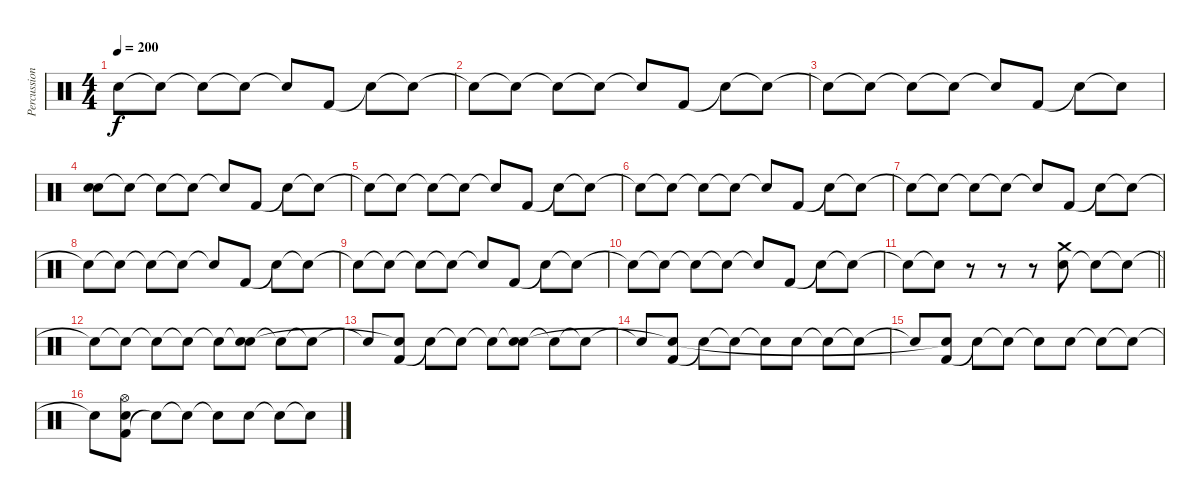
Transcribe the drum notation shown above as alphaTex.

\track ("Percussion" "Percussion") {instrument percussion}
\staff {score}
\articulation defaults
\ts (4 4)
\tempo 200
\clef neutral
\ks c "Snare (hit)"{t}.8{dy f} "Snare (hit)"{t}.8 "Snare (hit)"{t}.8 "Snare (hit)"{t}.8 "Snare (hit)"{t}.8 "Kick (hit) 2".8 "Hand Clap (hit)"{t}.8 "Snare (hit)"{t}.8
|
"Snare (hit)"{t}.8 "Snare (hit)"{t}.8 "Snare (hit)"{t}.8 "Snare (hit)"{t}.8 "Snare (hit)"{t}.8 "Kick (hit) 2".8 "Snare (hit)"{t}.8 "Snare (hit)"{t}.8 |
"Snare (hit)"{t}.8 "Snare (hit)"{t}.8 "Snare (hit)"{t}.8 "Snare (hit)"{t}.8 "Snare (hit)"{t}.8 "Kick (hit) 2".8 "Snare (hit)"{t}.8 "Snare (hit)"{t}.8 |
("Electric Snare (hit)" "Snare (hit)").8 "Snare (hit)"{t}.8 "Snare (hit)"{t}.8 "Snare (hit)"{t}.8 "Snare (hit)"{t}.8 "Kick (hit) 2".8 "Snare (hit)"{t}.8 "Snare (hit)"{t}.8 |
"Snare (hit)"{t}.8 "Snare (hit)"{t}.8 "Snare (hit)"{t}.8 "Snare (hit)"{t}.8 "Snare (hit)"{t}.8 "Kick (hit) 2".8 "Snare (hit)"{t}.8 "Snare (hit)"{t}.8 |
"Snare (hit)"{t}.8 "Snare (hit)"{t}.8 "Snare (hit)"{t}.8 "Snare (hit)"{t}.8 "Snare (hit)"{t}.8 "Kick (hit) 2".8 "Snare (hit)"{t}.8 "Snare (hit)"{t}.8 |
"Snare (hit)"{t}.8 "Snare (hit)"{t}.8 "Snare (hit)"{t}.8 "Snare (hit)"{t}.8 "Snare (hit)"{t}.8 "Kick (hit) 2".8 "Snare (hit)"{t}.8 "Snare (hit)"{t}.8 |
"Snare (hit)"{t}.8 "Snare (hit)"{t}.8 "Snare (hit)"{t}.8 "Snare (hit)"{t}.8 "Snare (hit)"{t}.8 "Kick (hit) 2".8 "Snare (hit)"{t}.8 "Snare (hit)"{t}.8 |
"Snare (hit)"{t}.8 "Snare (hit)"{t}.8 "Snare (hit)"{t}.8 "Snare (hit)"{t}.8 "Snare (hit)"{t}.8 "Kick (hit) 2".8 "Snare (hit)"{t}.8 "Snare (hit)"{t}.8 |
"Snare (hit)"{t}.8 "Snare (hit)"{t}.8 "Snare (hit)"{t}.8 "Snare (hit)"{t}.8 "Snare (hit)"{t}.8 "Kick (hit) 2".8 "Snare (hit)"{t}.8 "Snare (hit)"{t}.8 |
\barLineRight lightlight "Snare (hit)"{t}.8 "Snare (hit)"{t}.8
r.8 r.8 r.8 ("Snare (hit) 2" "Crash medium (hit)").8 "Snare (hit)"{t}.8 "Snare (hit)"{t}.8 |
"Snare (hit)"{t}.8 "Snare (hit)"{t}.8 "Snare (hit)"{t}.8 "Snare (hit)"{t}.8 "Snare (hit)"{t}.8 ("Snare (hit)"{t} "Hand Clap (hit)").8 "Snare (hit)"{t}.8 "Snare (hit)"{t}.8 |
"Snare (hit)"{t}.8 ("Kick (hit) 2" "Snare (hit)"{t}).8 "Snare (hit)"{t}.8 "Snare (hit)"{t}.8 "Snare (hit)"{t}.8 ("Snare (hit)"{t} "Hand Clap (hit)").8 "Snare (hit)"{t}.8 "Snare (hit)"{t}.8 |
"Snare (hit)"{t}.8 ("Kick (hit) 2" "Snare (hit)"{t}).8 "Snare (hit)"{t}.8 "Snare (hit)"{t}.8 "Snare (hit)"{t}.8 "Hand Clap (hit)".8 "Snare (hit)"{t}.8 "Snare (hit)"{t}.8 |
"Snare (hit)"{t}.8 ("Kick (hit) 2" "Snare (hit)"{t}).8 "Snare (hit)"{t}.8 "Hand Clap (hit)"{t}.8 "Snare (hit)"{t}.8 "Hand Clap (hit)".8 "Snare (hit)"{t}.8 "Snare (hit)"{t}.8 |
"Snare (hit)"{t}.8 ("Kick (hit) 2" "Hi-Hat (open)" "Snare (hit)").8 "Snare (hit)"{t}.8 "Snare (hit)"{t}.8 "Snare (hit)"{t}.8 "Hand Clap (hit)".8 "Hand Clap (hit)"{t}.8 "Snare (hit)"{t}.8
